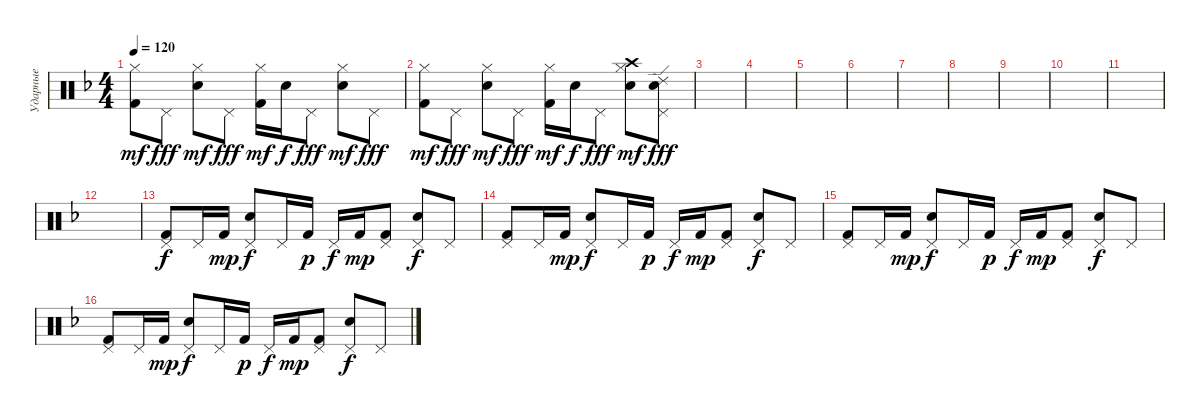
\track ("Ударные" "Ударные") {instrument percussion}
\staff {score}
\articulation defaults
\ts (4 4)
\tempo 120
\clef neutral
\ks dminor
("Kick (hit) 2" "Hi-Hat (closed)").8{dy mf} "Pedal Hi-Hat (hit)".8{dy fff} ("Hi-Hat (closed)" "Electric Snare (hit)").8{dy mf} "Pedal Hi-Hat (hit)".8{dy fff} ("Kick (hit) 2" "Hi-Hat (closed)").16{dy mf} "Electric Snare (hit)".16{dy f} "Pedal Hi-Hat (hit)".8{dy fff} ("Hi-Hat (closed)" "Electric Snare (hit)").8{dy mf} "Pedal Hi-Hat (hit)".8{dy fff} |
("Kick (hit) 2" "Hi-Hat (closed)").8{dy mf} "Pedal Hi-Hat (hit)".8{dy fff} ("Hi-Hat (closed)" "Electric Snare (hit)").8{dy mf} "Pedal Hi-Hat (hit)".8{dy fff} ("Kick (hit) 2" "Hi-Hat (closed)").16{dy mf} "Electric Snare (hit)".16{dy f} "Pedal Hi-Hat (hit)".8{dy fff} ("Crash high (hit)" "Hi-Hat (closed)" "Electric Snare (hit)").8{dy mf} ("Ride (edge) 2" "Snare (hit) 2" "Pedal Hi-Hat (hit)").8{dy fff} |
|
|
|
|
|
|
|
|
|
|
("Pedal Hi-Hat (hit)" "Kick (hit) 2").8{dy f} "Pedal Hi-Hat (hit)".16 "Kick (hit) 2".16{dy mp} ("Pedal Hi-Hat (hit)" "Snare (hit) 2").8{dy f} "Pedal Hi-Hat (hit)".16 "Kick (hit) 2".16{dy p} "Pedal Hi-Hat (hit)".16{dy f} "Kick (hit) 2".16{dy mp} ("Pedal Hi-Hat (hit)" "Kick (hit) 2").8 ("Pedal Hi-Hat (hit)" "Snare (hit) 2").8{dy f} "Pedal Hi-Hat (hit)".8 |
("Pedal Hi-Hat (hit)" "Kick (hit) 2").8 "Pedal Hi-Hat (hit)".16 "Kick (hit) 2".16{dy mp} ("Pedal Hi-Hat (hit)" "Snare (hit) 2").8{dy f} "Pedal Hi-Hat (hit)".16 "Kick (hit) 2".16{dy p} "Pedal Hi-Hat (hit)".16{dy f} "Kick (hit) 2".16{dy mp} ("Pedal Hi-Hat (hit)" "Kick (hit) 2").8 ("Pedal Hi-Hat (hit)" "Snare (hit) 2").8{dy f} "Pedal Hi-Hat (hit)".8 |
("Pedal Hi-Hat (hit)" "Kick (hit) 2").8 "Pedal Hi-Hat (hit)".16 "Kick (hit) 2".16{dy mp} ("Pedal Hi-Hat (hit)" "Snare (hit) 2").8{dy f} "Pedal Hi-Hat (hit)".16 "Kick (hit) 2".16{dy p} "Pedal Hi-Hat (hit)".16{dy f} "Kick (hit) 2".16{dy mp} ("Pedal Hi-Hat (hit)" "Kick (hit) 2").8 ("Pedal Hi-Hat (hit)" "Snare (hit) 2").8{dy f} "Pedal Hi-Hat (hit)".8 |
("Pedal Hi-Hat (hit)" "Kick (hit) 2").8 "Pedal Hi-Hat (hit)".16 "Kick (hit) 2".16{dy mp} ("Pedal Hi-Hat (hit)" "Snare (hit) 2").8{dy f} "Pedal Hi-Hat (hit)".16 "Kick (hit) 2".16{dy p} "Pedal Hi-Hat (hit)".16{dy f} "Kick (hit) 2".16{dy mp} ("Pedal Hi-Hat (hit)" "Kick (hit) 2").8 ("Pedal Hi-Hat (hit)" "Snare (hit) 2").8{dy f} "Pedal Hi-Hat (hit)".8
